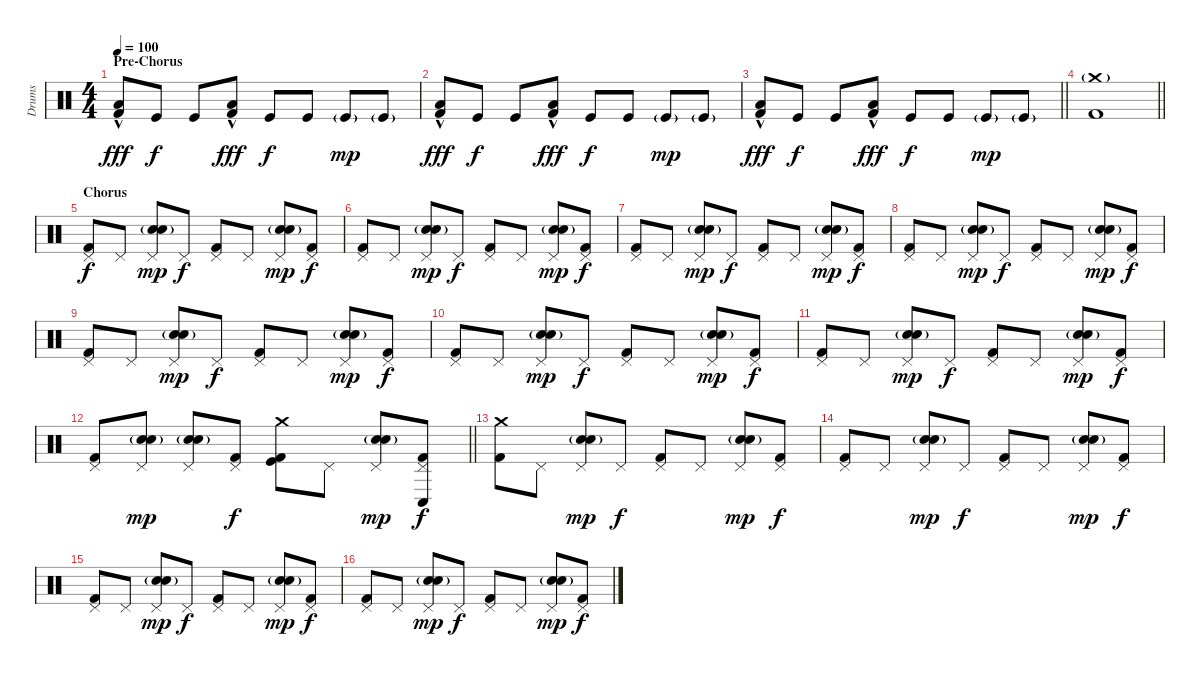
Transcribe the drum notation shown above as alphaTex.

\track ("Drums" "Drums") {instrument percussion}
\staff {score}
\articulation defaults
\ts (4 4)
\section ("" "Pre-Chorus")
\tempo 100
\clef neutral
\ks c
("Low Floor Tom (hit)" "Kick (hit) 2"{hac}).8{dy fff} "Kick (hit)".8{dy f} "Kick (hit)".8 ("Low Floor Tom (hit)" "Kick (hit) 2"{hac}).8{dy fff} "Kick (hit)".8{dy f} "Kick (hit)".8 "Kick (hit)"{g}.8{dy mp} "Kick (hit)"{g}.8 |
("Low Floor Tom (hit)" "Kick (hit) 2"{hac}).8{dy fff} "Kick (hit)".8{dy f} "Kick (hit)".8 ("Low Floor Tom (hit)" "Kick (hit) 2"{hac}).8{dy fff} "Kick (hit)".8{dy f} "Kick (hit)".8 "Kick (hit)"{g}.8{dy mp} "Kick (hit)"{g}.8 |
\barLineRight lightlight
("Low Floor Tom (hit)" "Kick (hit) 2"{hac}).8{dy fff} "Kick (hit)".8{dy f} "Kick (hit)".8 ("Low Floor Tom (hit)" "Kick (hit) 2"{hac}).8{dy fff} "Kick (hit)".8{dy f} "Kick (hit)".8 "Kick (hit)"{g}.8{dy mp} "Kick (hit)"{g}.8 |
\barLineRight lightlight
("Crash medium (hit)"{g} "Kick (hit) 2").1 |
\section ("" "Chorus")
("Pedal Hi-Hat (hit)" "Kick (hit) 2").8{dy f} "Pedal Hi-Hat (hit)".8 ("Pedal Hi-Hat (hit)" "Snare (hit) 2" "Electric Snare (hit)"{g}).8{dy mp} "Pedal Hi-Hat (hit)".8{dy f} ("Pedal Hi-Hat (hit)" "Kick (hit) 2").8 "Pedal Hi-Hat (hit)".8 ("Pedal Hi-Hat (hit)" "Snare (hit) 2" "Electric Snare (hit)"{g}).8{dy mp} ("Pedal Hi-Hat (hit)" "Kick (hit) 2").8{dy f} |
("Pedal Hi-Hat (hit)" "Kick (hit) 2").8 "Pedal Hi-Hat (hit)".8 ("Pedal Hi-Hat (hit)" "Snare (hit) 2" "Electric Snare (hit)"{g}).8{dy mp} "Pedal Hi-Hat (hit)".8{dy f} ("Pedal Hi-Hat (hit)" "Kick (hit) 2").8 "Pedal Hi-Hat (hit)".8 ("Pedal Hi-Hat (hit)" "Snare (hit) 2" "Electric Snare (hit)"{g}).8{dy mp} ("Pedal Hi-Hat (hit)" "Kick (hit) 2").8{dy f} |
("Pedal Hi-Hat (hit)" "Kick (hit) 2").8 "Pedal Hi-Hat (hit)".8 ("Pedal Hi-Hat (hit)" "Snare (hit) 2" "Electric Snare (hit)"{g}).8{dy mp} "Pedal Hi-Hat (hit)".8{dy f} ("Pedal Hi-Hat (hit)" "Kick (hit) 2").8 "Pedal Hi-Hat (hit)".8 ("Pedal Hi-Hat (hit)" "Snare (hit) 2" "Electric Snare (hit)"{g}).8{dy mp} ("Pedal Hi-Hat (hit)" "Kick (hit) 2").8{dy f} |
("Pedal Hi-Hat (hit)" "Kick (hit) 2").8 "Pedal Hi-Hat (hit)".8 ("Pedal Hi-Hat (hit)" "Snare (hit) 2" "Electric Snare (hit)"{g}).8{dy mp} "Pedal Hi-Hat (hit)".8{dy f} ("Pedal Hi-Hat (hit)" "Kick (hit) 2").8 "Pedal Hi-Hat (hit)".8 ("Pedal Hi-Hat (hit)" "Snare (hit) 2" "Electric Snare (hit)"{g}).8{dy mp} ("Pedal Hi-Hat (hit)" "Kick (hit) 2").8{dy f} |
("Pedal Hi-Hat (hit)" "Kick (hit) 2").8 "Pedal Hi-Hat (hit)".8 ("Pedal Hi-Hat (hit)" "Snare (hit) 2" "Electric Snare (hit)"{g}).8{dy mp} "Pedal Hi-Hat (hit)".8{dy f} ("Pedal Hi-Hat (hit)" "Kick (hit) 2").8 "Pedal Hi-Hat (hit)".8 ("Pedal Hi-Hat (hit)" "Snare (hit) 2" "Electric Snare (hit)"{g}).8{dy mp} ("Pedal Hi-Hat (hit)" "Kick (hit) 2").8{dy f} |
("Pedal Hi-Hat (hit)" "Kick (hit) 2").8 "Pedal Hi-Hat (hit)".8 ("Pedal Hi-Hat (hit)" "Snare (hit) 2" "Electric Snare (hit)"{g}).8{dy mp} "Pedal Hi-Hat (hit)".8{dy f} ("Pedal Hi-Hat (hit)" "Kick (hit) 2").8 "Pedal Hi-Hat (hit)".8 ("Pedal Hi-Hat (hit)" "Snare (hit) 2" "Electric Snare (hit)"{g}).8{dy mp} ("Pedal Hi-Hat (hit)" "Kick (hit) 2").8{dy f} |
("Pedal Hi-Hat (hit)" "Kick (hit) 2").8 "Pedal Hi-Hat (hit)".8 ("Pedal Hi-Hat (hit)" "Snare (hit) 2" "Electric Snare (hit)"{g}).8{dy mp} "Pedal Hi-Hat (hit)".8{dy f} ("Pedal Hi-Hat (hit)" "Kick (hit) 2").8 "Pedal Hi-Hat (hit)".8 ("Pedal Hi-Hat (hit)" "Snare (hit) 2" "Electric Snare (hit)"{g}).8{dy mp} ("Pedal Hi-Hat (hit)" "Kick (hit) 2").8{dy f} |
\barLineRight lightlight
("Pedal Hi-Hat (hit)" "Kick (hit) 2").8 ("Pedal Hi-Hat (hit)" "Snare (hit) 2" "Electric Snare (hit)"{g}).8{dy mp} ("Pedal Hi-Hat (hit)" "Snare (hit) 2" "Electric Snare (hit)"{g}).8 ("Pedal Hi-Hat (hit)" "Kick (hit) 2").8{dy f} ("Crash medium (hit)" "Kick (hit)" "Kick (hit) 2").8 "Pedal Hi-Hat (hit)".8 ("Pedal Hi-Hat (hit)" "Snare (hit) 2" "Electric Snare (hit)"{g}).8{dy mp} ("Pedal Hi-Hat (hit)" "Conga low (hit)" "Kick (hit) 2").8{dy f} |
("Crash medium (hit)" "Kick (hit) 2").8 "Pedal Hi-Hat (hit)".8 ("Pedal Hi-Hat (hit)" "Snare (hit) 2" "Electric Snare (hit)"{g}).8{dy mp} "Pedal Hi-Hat (hit)".8{dy f} ("Pedal Hi-Hat (hit)" "Kick (hit) 2").8 "Pedal Hi-Hat (hit)".8 ("Pedal Hi-Hat (hit)" "Snare (hit) 2" "Electric Snare (hit)"{g}).8{dy mp} ("Pedal Hi-Hat (hit)" "Kick (hit) 2").8{dy f} |
("Pedal Hi-Hat (hit)" "Kick (hit) 2").8 "Pedal Hi-Hat (hit)".8 ("Pedal Hi-Hat (hit)" "Snare (hit) 2" "Electric Snare (hit)"{g}).8{dy mp} "Pedal Hi-Hat (hit)".8{dy f} ("Pedal Hi-Hat (hit)" "Kick (hit) 2").8 "Pedal Hi-Hat (hit)".8 ("Pedal Hi-Hat (hit)" "Snare (hit) 2" "Electric Snare (hit)"{g}).8{dy mp} ("Pedal Hi-Hat (hit)" "Kick (hit) 2").8{dy f} |
("Pedal Hi-Hat (hit)" "Kick (hit) 2").8 "Pedal Hi-Hat (hit)".8 ("Pedal Hi-Hat (hit)" "Snare (hit) 2" "Electric Snare (hit)"{g}).8{dy mp} "Pedal Hi-Hat (hit)".8{dy f} ("Pedal Hi-Hat (hit)" "Kick (hit) 2").8 "Pedal Hi-Hat (hit)".8 ("Pedal Hi-Hat (hit)" "Snare (hit) 2" "Electric Snare (hit)"{g}).8{dy mp} ("Pedal Hi-Hat (hit)" "Kick (hit) 2").8{dy f} |
("Pedal Hi-Hat (hit)" "Kick (hit) 2").8 "Pedal Hi-Hat (hit)".8 ("Pedal Hi-Hat (hit)" "Snare (hit) 2" "Electric Snare (hit)"{g}).8{dy mp} "Pedal Hi-Hat (hit)".8{dy f} ("Pedal Hi-Hat (hit)" "Kick (hit) 2").8 "Pedal Hi-Hat (hit)".8 ("Pedal Hi-Hat (hit)" "Snare (hit) 2" "Electric Snare (hit)"{g}).8{dy mp} ("Pedal Hi-Hat (hit)" "Kick (hit) 2").8{dy f}
